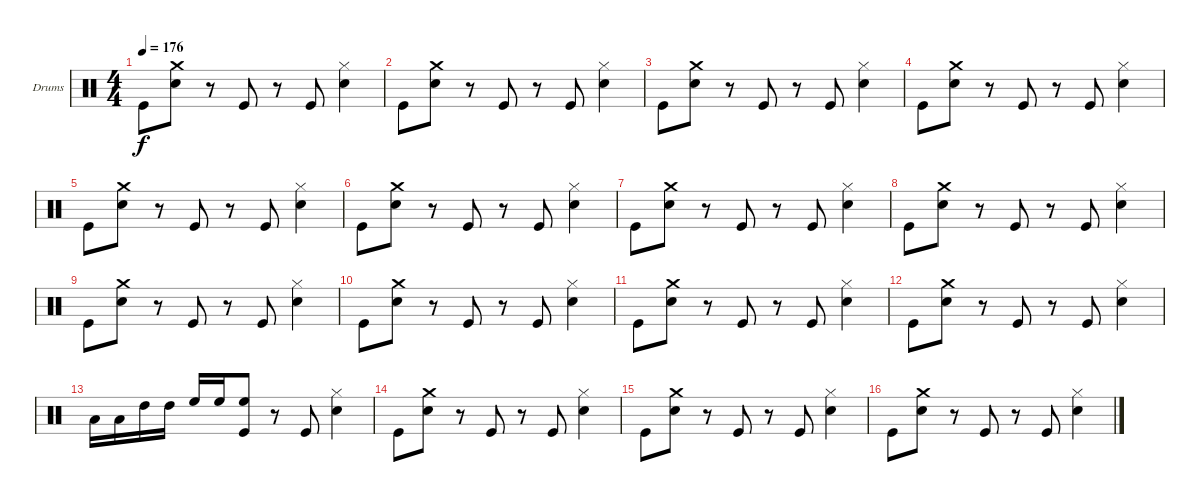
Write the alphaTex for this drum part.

\bracketExtendMode groupsimilarinstruments
\firstSystemTrackNameOrientation horizontal
\otherSystemsTrackNameOrientation horizontal
\track ("Drumkit" "Drums") {instrument percussion}
\staff {score}
\articulation defaults
\ts (4 4)
\tempo 176
\clef neutral
\ks c "Kick (hit)".8{dy f}
("Crash medium (hit)" "Snare (hit) 2").8 r.8 "Kick (hit)".8 r.8 "Kick (hit)".8 ("Hi-Hat (closed)" "Snare (hit) 2").4 |
"Kick (hit)".8 ("Crash medium (hit)" "Snare (hit) 2").8 r.8 "Kick (hit)".8 r.8 "Kick (hit)".8 ("Hi-Hat (closed)" "Snare (hit) 2").4 |
"Kick (hit)".8 ("Crash medium (hit)" "Snare (hit) 2").8 r.8 "Kick (hit)".8 r.8 "Kick (hit)".8 ("Hi-Hat (closed)" "Snare (hit) 2").4 |
"Kick (hit)".8 ("Crash medium (hit)" "Snare (hit) 2").8 r.8 "Kick (hit)".8 r.8 "Kick (hit)".8 ("Hi-Hat (closed)" "Snare (hit) 2").4 |
"Kick (hit)".8 ("Crash medium (hit)" "Snare (hit) 2").8 r.8 "Kick (hit)".8 r.8 "Kick (hit)".8 ("Hi-Hat (closed)" "Snare (hit) 2").4 |
"Kick (hit)".8 ("Crash medium (hit)" "Snare (hit) 2").8 r.8 "Kick (hit)".8 r.8 "Kick (hit)".8 ("Hi-Hat (closed)" "Snare (hit) 2").4 |
"Kick (hit)".8 ("Crash medium (hit)" "Snare (hit) 2").8 r.8 "Kick (hit)".8 r.8 "Kick (hit)".8 ("Hi-Hat (closed)" "Snare (hit) 2").4 |
"Kick (hit)".8 ("Crash medium (hit)" "Snare (hit) 2").8 r.8 "Kick (hit)".8 r.8 "Kick (hit)".8 ("Hi-Hat (closed)" "Snare (hit) 2").4 |
"Kick (hit)".8 ("Crash medium (hit)" "Snare (hit) 2").8 r.8 "Kick (hit)".8 r.8 "Kick (hit)".8 ("Hi-Hat (closed)" "Snare (hit) 2").4 |
"Kick (hit)".8 ("Crash medium (hit)" "Snare (hit) 2").8 r.8 "Kick (hit)".8 r.8 "Kick (hit)".8 ("Hi-Hat (closed)" "Snare (hit) 2").4 |
"Kick (hit)".8 ("Crash medium (hit)" "Snare (hit) 2").8 r.8 "Kick (hit)".8 r.8 "Kick (hit)".8 ("Hi-Hat (closed)" "Snare (hit) 2").4 |
"Kick (hit)".8 ("Crash medium (hit)" "Snare (hit) 2").8 r.8 "Kick (hit)".8 r.8 "Kick (hit)".8 ("Hi-Hat (closed)" "Snare (hit) 2").4 |
"Low Tom (hit)".16 "Low Tom (hit)".16 "High Tom (hit)".16 "High Tom (hit)".16 "High Floor Tom (hit)".16 "High Floor Tom (hit)".16 ("High Floor Tom (hit)" "Kick (hit)").8 r.8 "Kick (hit)".8 ("Hi-Hat (closed)" "Snare (hit) 2").4 |
"Kick (hit)".8 ("Crash medium (hit)" "Snare (hit) 2").8 r.8 "Kick (hit)".8 r.8 "Kick (hit)".8 ("Hi-Hat (closed)" "Snare (hit) 2").4 |
"Kick (hit)".8 ("Crash medium (hit)" "Snare (hit) 2").8 r.8 "Kick (hit)".8 r.8 "Kick (hit)".8 ("Hi-Hat (closed)" "Snare (hit) 2").4 |
"Kick (hit)".8 ("Crash medium (hit)" "Snare (hit) 2").8 r.8 "Kick (hit)".8 r.8 "Kick (hit)".8 ("Hi-Hat (closed)" "Snare (hit) 2").4
